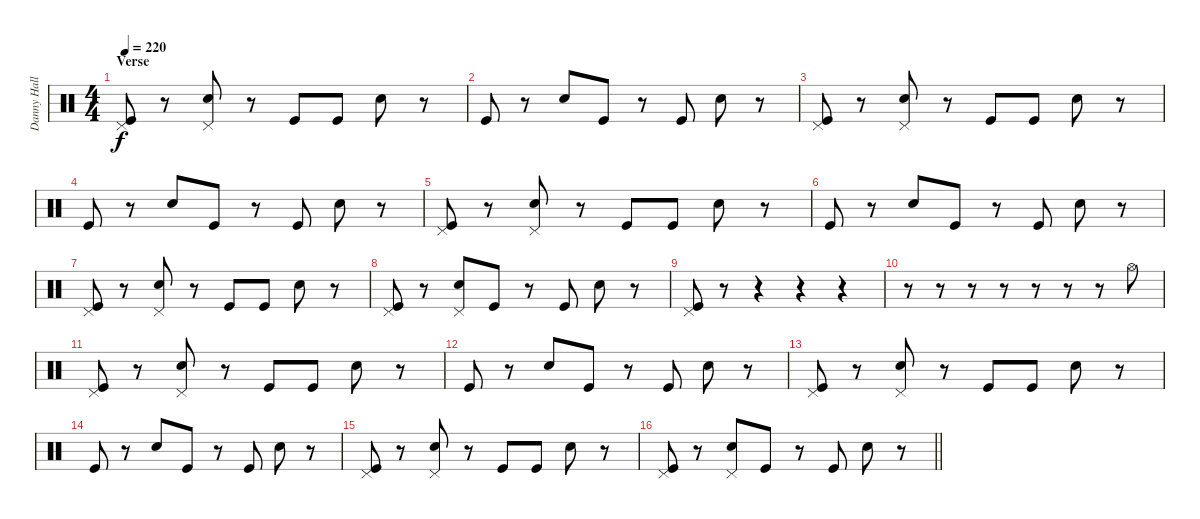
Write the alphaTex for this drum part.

\track ("Danny Hall" "Danny Hall") {instrument percussion}
\staff {score}
\articulation defaults
\ts (4 4)
\section ("" "Verse")
\tempo 220
\clef neutral
\ks c
("Pedal Hi-Hat (hit)" "Kick (hit)").8{dy f} r.8 ("Pedal Hi-Hat (hit)" "Snare (hit) 2").8 r.8 "Kick (hit)".8 "Kick (hit)".8 "Snare (hit) 2".8 r.8 |
"Kick (hit)".8 r.8 "Snare (hit) 2".8 "Kick (hit)".8 r.8 "Kick (hit)".8 "Snare (hit) 2".8 r.8 |
("Pedal Hi-Hat (hit)" "Kick (hit)").8 r.8 ("Pedal Hi-Hat (hit)" "Snare (hit) 2").8 r.8 "Kick (hit)".8 "Kick (hit)".8 "Snare (hit) 2".8 r.8 |
"Kick (hit)".8 r.8 "Snare (hit) 2".8 "Kick (hit)".8 r.8 "Kick (hit)".8 "Snare (hit) 2".8 r.8 |
("Pedal Hi-Hat (hit)" "Kick (hit)").8 r.8 ("Pedal Hi-Hat (hit)" "Snare (hit) 2").8 r.8 "Kick (hit)".8 "Kick (hit)".8 "Snare (hit) 2".8 r.8 |
"Kick (hit)".8 r.8 "Snare (hit) 2".8 "Kick (hit)".8 r.8 "Kick (hit)".8 "Snare (hit) 2".8 r.8 |
("Pedal Hi-Hat (hit)" "Kick (hit)").8 r.8 ("Pedal Hi-Hat (hit)" "Snare (hit) 2").8 r.8 "Kick (hit)".8 "Kick (hit)".8 "Snare (hit) 2".8 r.8 |
("Pedal Hi-Hat (hit)" "Kick (hit)").8 r.8 ("Pedal Hi-Hat (hit)" "Snare (hit) 2").8 "Kick (hit)".8 r.8 "Kick (hit)".8 "Snare (hit) 2".8 r.8 |
("Pedal Hi-Hat (hit)" "Kick (hit)").8 r.8 r.4 r.4 r.4 |
r.8 r.8 r.8 r.8 r.8 r.8 r.8 "Hi-Hat (open)".8 |
("Pedal Hi-Hat (hit)" "Kick (hit)").8 r.8 ("Pedal Hi-Hat (hit)" "Snare (hit) 2").8 r.8 "Kick (hit)".8 "Kick (hit)".8 "Snare (hit) 2".8 r.8 |
"Kick (hit)".8 r.8 "Snare (hit) 2".8 "Kick (hit)".8 r.8 "Kick (hit)".8 "Snare (hit) 2".8 r.8 |
("Pedal Hi-Hat (hit)" "Kick (hit)").8 r.8 ("Pedal Hi-Hat (hit)" "Snare (hit) 2").8 r.8 "Kick (hit)".8 "Kick (hit)".8 "Snare (hit) 2".8 r.8 |
"Kick (hit)".8 r.8 "Snare (hit) 2".8 "Kick (hit)".8 r.8 "Kick (hit)".8 "Snare (hit) 2".8 r.8 |
("Pedal Hi-Hat (hit)" "Kick (hit)").8 r.8 ("Pedal Hi-Hat (hit)" "Snare (hit) 2").8 r.8 "Kick (hit)".8 "Kick (hit)".8 "Snare (hit) 2".8 r.8 |
\barLineRight lightlight
("Pedal Hi-Hat (hit)" "Kick (hit)").8 r.8 ("Pedal Hi-Hat (hit)" "Snare (hit) 2").8 "Kick (hit)".8 r.8 "Kick (hit)".8 "Snare (hit) 2".8 r.8
